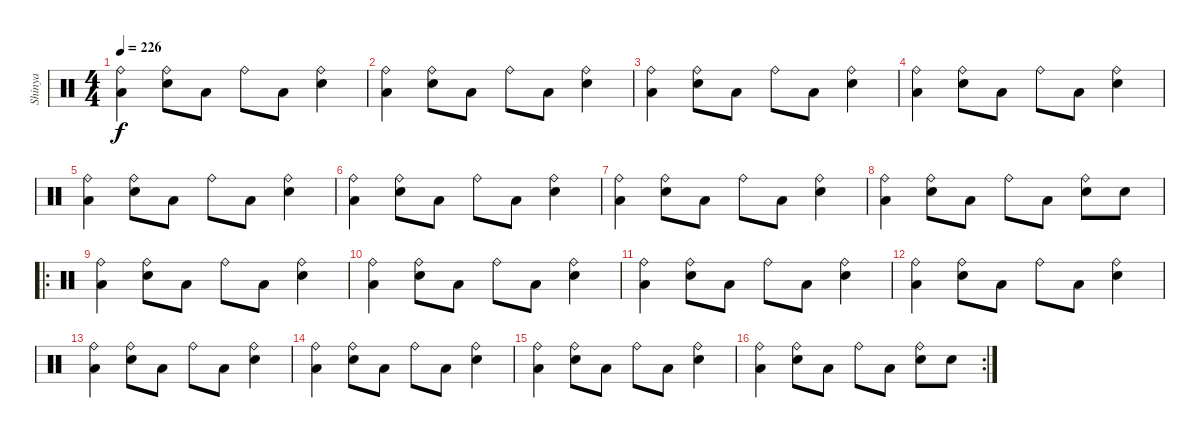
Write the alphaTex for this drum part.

\track ("Shinya" "Shinya") {instrument percussion}
\staff {score}
\articulation defaults
\ts (4 4)
\tempo 226
\clef neutral
\ks c
("Ride (bell)" "Low Floor Tom (hit)").4{dy f} ("Ride (bell)" "Snare (hit) 2").8 "Low Floor Tom (hit)".8 "Ride (bell)".8 "Low Floor Tom (hit)".8 ("Ride (bell)" "Snare (hit) 2").4 |
("Ride (bell)" "Low Floor Tom (hit)").4 ("Ride (bell)" "Snare (hit) 2").8 "Low Floor Tom (hit)".8 "Ride (bell)".8 "Low Floor Tom (hit)".8 ("Ride (bell)" "Snare (hit) 2").4 |
("Ride (bell)" "Low Floor Tom (hit)").4 ("Ride (bell)" "Snare (hit) 2").8 "Low Floor Tom (hit)".8 "Ride (bell)".8 "Low Floor Tom (hit)".8 ("Ride (bell)" "Snare (hit) 2").4 |
("Ride (bell)" "Low Floor Tom (hit)").4 ("Ride (bell)" "Snare (hit) 2").8 "Low Floor Tom (hit)".8 "Ride (bell)".8 "Low Floor Tom (hit)".8 ("Ride (bell)" "Snare (hit) 2").4 |
("Ride (bell)" "Low Floor Tom (hit)").4 ("Ride (bell)" "Snare (hit) 2").8 "Low Floor Tom (hit)".8 "Ride (bell)".8 "Low Floor Tom (hit)".8 ("Ride (bell)" "Snare (hit) 2").4 |
("Ride (bell)" "Low Floor Tom (hit)").4 ("Ride (bell)" "Snare (hit) 2").8 "Low Floor Tom (hit)".8 "Ride (bell)".8 "Low Floor Tom (hit)".8 ("Ride (bell)" "Snare (hit) 2").4 |
("Ride (bell)" "Low Floor Tom (hit)").4 ("Ride (bell)" "Snare (hit) 2").8 "Low Floor Tom (hit)".8 "Ride (bell)".8 "Low Floor Tom (hit)".8 ("Ride (bell)" "Snare (hit) 2").4 |
("Ride (bell)" "Low Floor Tom (hit)").4 ("Ride (bell)" "Snare (hit) 2").8 "Low Floor Tom (hit)".8 "Ride (bell)".8 "Low Floor Tom (hit)".8 ("Ride (bell)" "Snare (hit) 2").8 "Snare (hit) 2".8 |
\ro
("Ride (bell)" "Low Floor Tom (hit)").4 ("Ride (bell)" "Snare (hit) 2").8 "Low Floor Tom (hit)".8 "Ride (bell)".8 "Low Floor Tom (hit)".8 ("Ride (bell)" "Snare (hit) 2").4 |
("Ride (bell)" "Low Floor Tom (hit)").4 ("Ride (bell)" "Snare (hit) 2").8 "Low Floor Tom (hit)".8 "Ride (bell)".8 "Low Floor Tom (hit)".8 ("Ride (bell)" "Snare (hit) 2").4 |
("Ride (bell)" "Low Floor Tom (hit)").4 ("Ride (bell)" "Snare (hit) 2").8 "Low Floor Tom (hit)".8 "Ride (bell)".8 "Low Floor Tom (hit)".8 ("Ride (bell)" "Snare (hit) 2").4 |
("Ride (bell)" "Low Floor Tom (hit)").4 ("Ride (bell)" "Snare (hit) 2").8 "Low Floor Tom (hit)".8 "Ride (bell)".8 "Low Floor Tom (hit)".8 ("Ride (bell)" "Snare (hit) 2").4 |
("Ride (bell)" "Low Floor Tom (hit)").4 ("Ride (bell)" "Snare (hit) 2").8 "Low Floor Tom (hit)".8 "Ride (bell)".8 "Low Floor Tom (hit)".8 ("Ride (bell)" "Snare (hit) 2").4 |
("Ride (bell)" "Low Floor Tom (hit)").4 ("Ride (bell)" "Snare (hit) 2").8 "Low Floor Tom (hit)".8 "Ride (bell)".8 "Low Floor Tom (hit)".8 ("Ride (bell)" "Snare (hit) 2").4 |
("Ride (bell)" "Low Floor Tom (hit)").4 ("Ride (bell)" "Snare (hit) 2").8 "Low Floor Tom (hit)".8 "Ride (bell)".8 "Low Floor Tom (hit)".8 ("Ride (bell)" "Snare (hit) 2").4 |
\rc 2
("Ride (bell)" "Low Floor Tom (hit)").4 ("Ride (bell)" "Snare (hit) 2").8 "Low Floor Tom (hit)".8 "Ride (bell)".8 "Low Floor Tom (hit)".8 ("Ride (bell)" "Snare (hit) 2").8 "Snare (hit) 2".8
